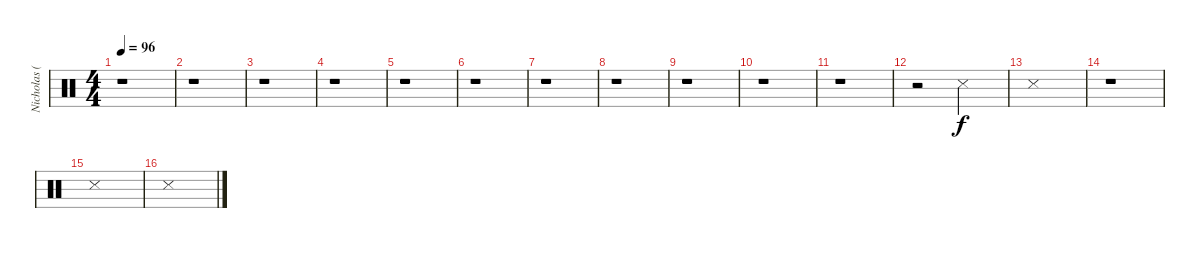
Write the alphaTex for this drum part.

\track ("Nicholas (Drums)" "Nicholas (") {instrument percussion}
\staff {score}
\articulation defaults
\ts (4 4)
\tempo 96
\clef neutral
\ks c
r.1{dy mf} |
r.1 |
r.1 |
r.1 |
r.1 |
r.1 |
r.1 |
r.1 |
r.1 |
r.1 |
r.1 |
r.2 "Metronome (hit)".2{dy f} |
"Snare (side stick) 3".1 |
r.1 |
"Snare (side stick) 3".1 |
"Metronome (hit)".1
